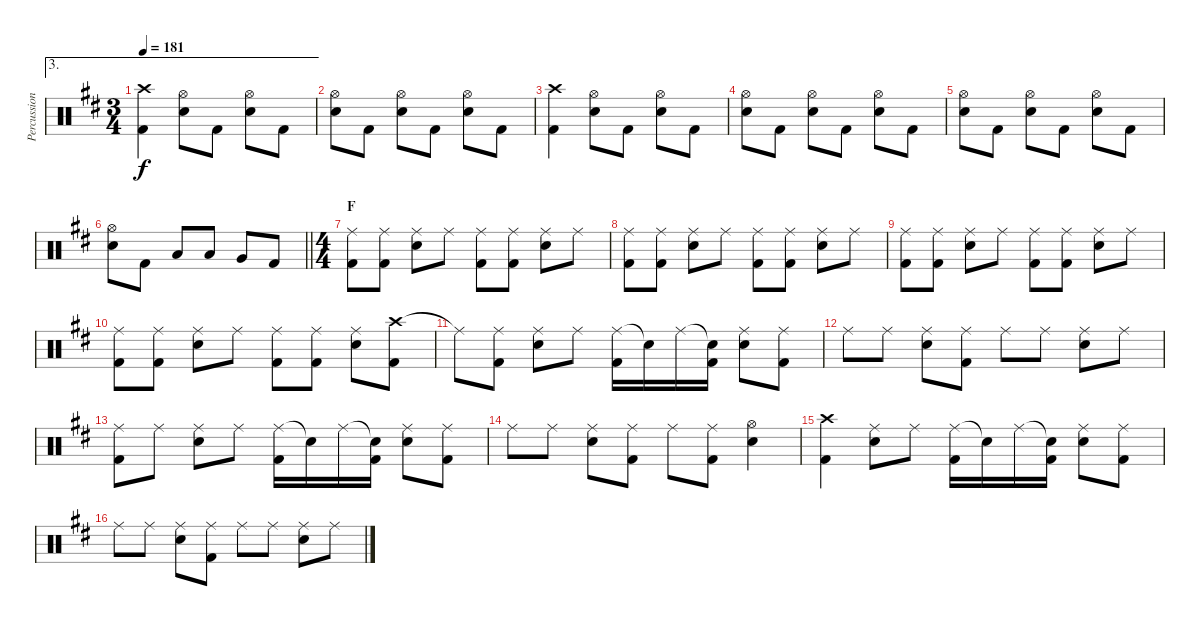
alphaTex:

\track ("Percussion" "Percussion") {instrument percussion}
\staff {score}
\articulation defaults
\ae 3
\ts (3 4)
\tempo 181
\clef neutral
\ks d
("Crash high (hit)" "Kick (hit) 2").4{dy f} ("Hi-Hat (open)" "Snare (hit) 2").8 "Kick (hit) 2".8 ("Hi-Hat (open)" "Snare (hit) 2").8 "Kick (hit) 2".8 |
("Hi-Hat (open)" "Snare (hit) 2").8 "Kick (hit) 2".8 ("Hi-Hat (open)" "Snare (hit) 2").8 "Kick (hit) 2".8 ("Hi-Hat (open)" "Snare (hit) 2").8 "Kick (hit) 2".8 |
("Crash high (hit)" "Kick (hit) 2").4 ("Hi-Hat (open)" "Snare (hit) 2").8 "Kick (hit) 2".8 ("Hi-Hat (open)" "Snare (hit) 2").8 "Kick (hit) 2".8 |
("Hi-Hat (open)" "Snare (hit) 2").8 "Kick (hit) 2".8 ("Hi-Hat (open)" "Snare (hit) 2").8 "Kick (hit) 2".8 ("Hi-Hat (open)" "Snare (hit) 2").8 "Kick (hit) 2".8 |
("Hi-Hat (open)" "Snare (hit) 2").8 "Kick (hit) 2".8 ("Hi-Hat (open)" "Snare (hit) 2").8 "Kick (hit) 2".8 ("Hi-Hat (open)" "Snare (hit) 2").8 "Kick (hit) 2".8 |
\barLineRight lightlight
("Hi-Hat (open)" "Snare (hit) 2").8 "Kick (hit) 2".8 "Low Tom (hit)".8 "Low Tom (hit)".8 "Very Low Tom (hit)".8 "Kick (hit) 2".8 |
\ts (4 4)
\section ("" "F")
("Ride (middle)" "Kick (hit) 2").8 ("Ride (middle)" "Kick (hit) 2").8 ("Ride (middle)" "Snare (hit) 2").8 "Ride (middle)".8 ("Ride (middle)" "Kick (hit) 2").8 ("Ride (middle)" "Kick (hit) 2").8 ("Ride (middle)" "Snare (hit) 2").8 "Ride (middle)".8 |
("Ride (middle)" "Kick (hit) 2").8 ("Ride (middle)" "Kick (hit) 2").8 ("Ride (middle)" "Snare (hit) 2").8 "Ride (middle)".8 ("Ride (middle)" "Kick (hit) 2").8 ("Ride (middle)" "Kick (hit) 2").8 ("Ride (middle)" "Snare (hit) 2").8 "Ride (middle)".8 |
("Ride (middle)" "Kick (hit) 2").8 ("Ride (middle)" "Kick (hit) 2").8 ("Ride (middle)" "Snare (hit) 2").8 "Ride (middle)".8 ("Ride (middle)" "Kick (hit) 2").8 ("Ride (middle)" "Kick (hit) 2").8 ("Ride (middle)" "Snare (hit) 2").8 "Ride (middle)".8 |
("Ride (middle)" "Kick (hit) 2").8 ("Ride (middle)" "Kick (hit) 2").8 ("Ride (middle)" "Snare (hit) 2").8 "Ride (middle)".8 ("Ride (middle)" "Kick (hit) 2").8 ("Ride (middle)" "Kick (hit) 2").8 ("Ride (middle)" "Snare (hit) 2").8 ("Crash high (hit)" "Kick (hit) 2").8 |
"Ride (middle)"{t}.8 ("Ride (middle)" "Kick (hit) 2").8 ("Ride (middle)" "Snare (hit) 2").8 "Ride (middle)".8 ("Ride (middle)" "Kick (hit) 2").16 "Snare (hit)"{t}.16 "Ride (middle)".16 ("Snare (hit)"{t} "Kick (hit) 2").16 ("Ride (middle)" "Snare (hit) 2").8 ("Ride (middle)" "Kick (hit) 2").8 |
"Ride (middle)".8 "Ride (middle)".8 ("Ride (middle)" "Snare (hit) 2").8 ("Ride (middle)" "Kick (hit) 2").8 "Ride (middle)".8 "Ride (middle)".8 ("Ride (middle)" "Snare (hit) 2").8 "Ride (middle)".8 |
("Ride (middle)" "Kick (hit) 2").8 "Ride (middle)".8 ("Ride (middle)" "Snare (hit) 2").8 "Ride (middle)".8 ("Ride (middle)" "Kick (hit) 2").16 "Snare (hit)"{t}.16 "Ride (middle)".16 ("Snare (hit)"{t} "Kick (hit) 2").16 ("Ride (middle)" "Snare (hit) 2").8 ("Ride (middle)" "Kick (hit) 2").8 |
"Ride (middle)".8 "Ride (middle)".8 ("Ride (middle)" "Snare (hit) 2").8 ("Ride (middle)" "Kick (hit) 2").8 "Ride (middle)".8 ("Ride (middle)" "Kick (hit) 2").8 ("Hi-Hat (open)" "Snare (hit) 2").4 |
("Crash high (hit)" "Kick (hit) 2").4 ("Ride (middle)" "Snare (hit) 2").8 "Ride (middle)".8 ("Ride (middle)" "Kick (hit) 2").16 "Snare (hit)"{t}.16 "Ride (middle)".16 ("Snare (hit)"{t} "Kick (hit) 2").16 ("Ride (middle)" "Snare (hit) 2").8 ("Ride (middle)" "Kick (hit) 2").8 |
"Ride (middle)".8 "Ride (middle)".8 ("Ride (middle)" "Snare (hit) 2").8 ("Ride (middle)" "Kick (hit) 2").8 "Ride (middle)".8 "Ride (middle)".8 ("Ride (middle)" "Snare (hit) 2").8 "Ride (middle)".8
